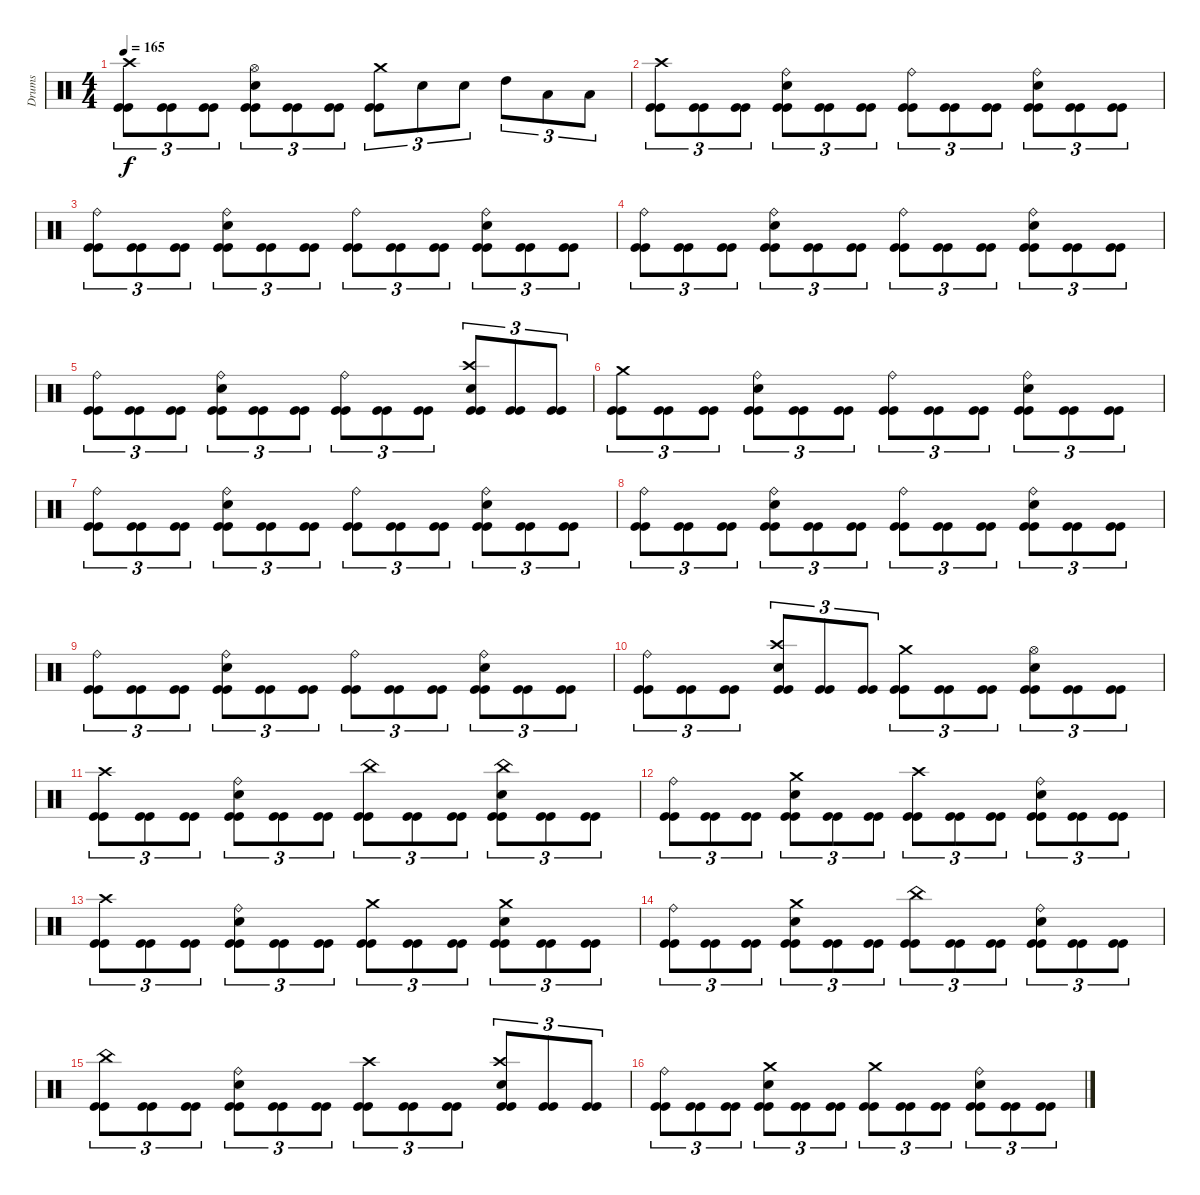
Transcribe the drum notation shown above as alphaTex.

\track ("Drums" "Drums") {instrument percussion}
\staff {score}
\articulation defaults
\ts (4 4)
\tempo 165
\clef neutral
\ks c
("Kick (hit)" "Kick (hit)" "Crash high (hit)").8{tu (3 2) dy f} ("Kick (hit)" "Kick (hit)").8{tu (3 2)} ("Kick (hit)" "Kick (hit)").8{tu (3 2)} ("Kick (hit)" "Kick (hit)" "Snare (hit) 2" "Hi-Hat (open)").8{tu (3 2)} ("Kick (hit)" "Kick (hit)").8{tu (3 2)} ("Kick (hit)" "Kick (hit)").8{tu (3 2)} ("Kick (hit)" "Kick (hit)" "Crash medium (hit)").8{tu (3 2)} "Snare (hit) 2".8{tu (3 2)} "Snare (hit) 2".8{tu (3 2)} "High Tom (hit)".8{tu (3 2)} "Low Tom (hit)".8{tu (3 2)} "Low Floor Tom (hit)".8{tu (3 2)} |
("Kick (hit)" "Kick (hit)" "Crash high (hit)").8{tu (3 2)} ("Kick (hit)" "Kick (hit)").8{tu (3 2)} ("Kick (hit)" "Kick (hit)").8{tu (3 2)} ("Kick (hit)" "Kick (hit)" "Snare (hit) 2" "Ride (bell)").8{tu (3 2)} ("Kick (hit)" "Kick (hit)").8{tu (3 2)} ("Kick (hit)" "Kick (hit)").8{tu (3 2)} ("Kick (hit)" "Kick (hit)" "Ride (bell)").8{tu (3 2)} ("Kick (hit)" "Kick (hit)").8{tu (3 2)} ("Kick (hit)" "Kick (hit)").8{tu (3 2)} ("Kick (hit)" "Kick (hit)" "Snare (hit) 2" "Ride (bell)").8{tu (3 2)} ("Kick (hit)" "Kick (hit)").8{tu (3 2)} ("Kick (hit)" "Kick (hit)").8{tu (3 2)} |
("Kick (hit)" "Kick (hit)" "Ride (bell)").8{tu (3 2)} ("Kick (hit)" "Kick (hit)").8{tu (3 2)} ("Kick (hit)" "Kick (hit)").8{tu (3 2)} ("Kick (hit)" "Kick (hit)" "Snare (hit) 2" "Ride (bell)").8{tu (3 2)} ("Kick (hit)" "Kick (hit)").8{tu (3 2)} ("Kick (hit)" "Kick (hit)").8{tu (3 2)} ("Kick (hit)" "Kick (hit)" "Ride (bell)").8{tu (3 2)} ("Kick (hit)" "Kick (hit)").8{tu (3 2)} ("Kick (hit)" "Kick (hit)").8{tu (3 2)} ("Kick (hit)" "Kick (hit)" "Snare (hit) 2" "Ride (bell)").8{tu (3 2)} ("Kick (hit)" "Kick (hit)").8{tu (3 2)} ("Kick (hit)" "Kick (hit)").8{tu (3 2)} |
("Kick (hit)" "Kick (hit)" "Ride (bell)").8{tu (3 2)} ("Kick (hit)" "Kick (hit)").8{tu (3 2)} ("Kick (hit)" "Kick (hit)").8{tu (3 2)} ("Kick (hit)" "Kick (hit)" "Snare (hit) 2" "Ride (bell)").8{tu (3 2)} ("Kick (hit)" "Kick (hit)").8{tu (3 2)} ("Kick (hit)" "Kick (hit)").8{tu (3 2)} ("Kick (hit)" "Kick (hit)" "Ride (bell)").8{tu (3 2)} ("Kick (hit)" "Kick (hit)").8{tu (3 2)} ("Kick (hit)" "Kick (hit)").8{tu (3 2)} ("Kick (hit)" "Kick (hit)" "Snare (hit) 2" "Ride (bell)").8{tu (3 2)} ("Kick (hit)" "Kick (hit)").8{tu (3 2)} ("Kick (hit)" "Kick (hit)").8{tu (3 2)} |
("Kick (hit)" "Kick (hit)" "Ride (bell)").8{tu (3 2)} ("Kick (hit)" "Kick (hit)").8{tu (3 2)} ("Kick (hit)" "Kick (hit)").8{tu (3 2)} ("Kick (hit)" "Kick (hit)" "Snare (hit) 2" "Ride (bell)").8{tu (3 2)} ("Kick (hit)" "Kick (hit)").8{tu (3 2)} ("Kick (hit)" "Kick (hit)").8{tu (3 2)} ("Kick (hit)" "Kick (hit)" "Ride (bell)").8{tu (3 2)} ("Kick (hit)" "Kick (hit)").8{tu (3 2)} ("Kick (hit)" "Kick (hit)").8{tu (3 2)} ("Kick (hit)" "Kick (hit)" "Snare (hit) 2" "Crash high (hit)").8{tu (3 2)} ("Kick (hit)" "Kick (hit)").8{tu (3 2)} ("Kick (hit)" "Kick (hit)").8{tu (3 2)} |
("Kick (hit)" "Kick (hit)" "Crash medium (hit)").8{tu (3 2)} ("Kick (hit)" "Kick (hit)").8{tu (3 2)} ("Kick (hit)" "Kick (hit)").8{tu (3 2)} ("Kick (hit)" "Kick (hit)" "Snare (hit) 2" "Ride (bell)").8{tu (3 2)} ("Kick (hit)" "Kick (hit)").8{tu (3 2)} ("Kick (hit)" "Kick (hit)").8{tu (3 2)} ("Kick (hit)" "Kick (hit)" "Ride (bell)").8{tu (3 2)} ("Kick (hit)" "Kick (hit)").8{tu (3 2)} ("Kick (hit)" "Kick (hit)").8{tu (3 2)} ("Kick (hit)" "Kick (hit)" "Snare (hit) 2" "Ride (bell)").8{tu (3 2)} ("Kick (hit)" "Kick (hit)").8{tu (3 2)} ("Kick (hit)" "Kick (hit)").8{tu (3 2)} |
("Kick (hit)" "Kick (hit)" "Ride (bell)").8{tu (3 2)} ("Kick (hit)" "Kick (hit)").8{tu (3 2)} ("Kick (hit)" "Kick (hit)").8{tu (3 2)} ("Kick (hit)" "Kick (hit)" "Snare (hit) 2" "Ride (bell)").8{tu (3 2)} ("Kick (hit)" "Kick (hit)").8{tu (3 2)} ("Kick (hit)" "Kick (hit)").8{tu (3 2)} ("Kick (hit)" "Kick (hit)" "Ride (bell)").8{tu (3 2)} ("Kick (hit)" "Kick (hit)").8{tu (3 2)} ("Kick (hit)" "Kick (hit)").8{tu (3 2)} ("Kick (hit)" "Kick (hit)" "Snare (hit) 2" "Ride (bell)").8{tu (3 2)} ("Kick (hit)" "Kick (hit)").8{tu (3 2)} ("Kick (hit)" "Kick (hit)").8{tu (3 2)} |
("Kick (hit)" "Kick (hit)" "Ride (bell)").8{tu (3 2)} ("Kick (hit)" "Kick (hit)").8{tu (3 2)} ("Kick (hit)" "Kick (hit)").8{tu (3 2)} ("Kick (hit)" "Kick (hit)" "Snare (hit) 2" "Ride (bell)").8{tu (3 2)} ("Kick (hit)" "Kick (hit)").8{tu (3 2)} ("Kick (hit)" "Kick (hit)").8{tu (3 2)} ("Kick (hit)" "Kick (hit)" "Ride (bell)").8{tu (3 2)} ("Kick (hit)" "Kick (hit)").8{tu (3 2)} ("Kick (hit)" "Kick (hit)").8{tu (3 2)} ("Kick (hit)" "Kick (hit)" "Snare (hit) 2" "Ride (bell)").8{tu (3 2)} ("Kick (hit)" "Kick (hit)").8{tu (3 2)} ("Kick (hit)" "Kick (hit)").8{tu (3 2)} |
("Kick (hit)" "Kick (hit)" "Ride (bell)").8{tu (3 2)} ("Kick (hit)" "Kick (hit)").8{tu (3 2)} ("Kick (hit)" "Kick (hit)").8{tu (3 2)} ("Kick (hit)" "Kick (hit)" "Snare (hit) 2" "Ride (bell)").8{tu (3 2)} ("Kick (hit)" "Kick (hit)").8{tu (3 2)} ("Kick (hit)" "Kick (hit)").8{tu (3 2)} ("Kick (hit)" "Kick (hit)" "Ride (bell)").8{tu (3 2)} ("Kick (hit)" "Kick (hit)").8{tu (3 2)} ("Kick (hit)" "Kick (hit)").8{tu (3 2)} ("Kick (hit)" "Kick (hit)" "Snare (hit) 2" "Ride (bell)").8{tu (3 2)} ("Kick (hit)" "Kick (hit)").8{tu (3 2)} ("Kick (hit)" "Kick (hit)").8{tu (3 2)} |
("Kick (hit)" "Kick (hit)" "Ride (bell)").8{tu (3 2)} ("Kick (hit)" "Kick (hit)").8{tu (3 2)} ("Kick (hit)" "Kick (hit)").8{tu (3 2)} ("Kick (hit)" "Kick (hit)" "Snare (hit) 2" "Crash high (hit)").8{tu (3 2)} ("Kick (hit)" "Kick (hit)").8{tu (3 2)} ("Kick (hit)" "Kick (hit)").8{tu (3 2)} ("Kick (hit)" "Kick (hit)" "Crash medium (hit)").8{tu (3 2)} ("Kick (hit)" "Kick (hit)").8{tu (3 2)} ("Kick (hit)" "Kick (hit)").8{tu (3 2)} ("Kick (hit)" "Kick (hit)" "Snare (hit) 2" "Hi-Hat (open)").8{tu (3 2)} ("Kick (hit)" "Kick (hit)").8{tu (3 2)} ("Kick (hit)" "Kick (hit)").8{tu (3 2)} |
("Kick (hit)" "Kick (hit)" "Crash high (hit)").8{tu (3 2)} ("Kick (hit)" "Kick (hit)").8{tu (3 2)} ("Kick (hit)" "Kick (hit)").8{tu (3 2)} ("Kick (hit)" "Kick (hit)" "Snare (hit) 2" "Ride (bell)").8{tu (3 2)} ("Kick (hit)" "Kick (hit)").8{tu (3 2)} ("Kick (hit)" "Kick (hit)").8{tu (3 2)} ("Kick (hit)" "Kick (hit)" "China (hit)").8{tu (3 2)} ("Kick (hit)" "Kick (hit)").8{tu (3 2)} ("Kick (hit)" "Kick (hit)").8{tu (3 2)} ("Kick (hit)" "Kick (hit)" "Snare (hit) 2" "China (hit)").8{tu (3 2)} ("Kick (hit)" "Kick (hit)").8{tu (3 2)} ("Kick (hit)" "Kick (hit)").8{tu (3 2)} |
("Kick (hit)" "Kick (hit)" "Ride (bell)").8{tu (3 2)} ("Kick (hit)" "Kick (hit)").8{tu (3 2)} ("Kick (hit)" "Kick (hit)").8{tu (3 2)} ("Kick (hit)" "Kick (hit)" "Snare (hit) 2" "Crash medium (hit)").8{tu (3 2)} ("Kick (hit)" "Kick (hit)").8{tu (3 2)} ("Kick (hit)" "Kick (hit)").8{tu (3 2)} ("Kick (hit)" "Kick (hit)" "Crash high (hit)").8{tu (3 2)} ("Kick (hit)" "Kick (hit)").8{tu (3 2)} ("Kick (hit)" "Kick (hit)").8{tu (3 2)} ("Kick (hit)" "Kick (hit)" "Snare (hit) 2" "Ride (bell)").8{tu (3 2)} ("Kick (hit)" "Kick (hit)").8{tu (3 2)} ("Kick (hit)" "Kick (hit)").8{tu (3 2)} |
("Kick (hit)" "Kick (hit)" "Crash high (hit)").8{tu (3 2)} ("Kick (hit)" "Kick (hit)").8{tu (3 2)} ("Kick (hit)" "Kick (hit)").8{tu (3 2)} ("Kick (hit)" "Kick (hit)" "Snare (hit) 2" "Ride (bell)").8{tu (3 2)} ("Kick (hit)" "Kick (hit)").8{tu (3 2)} ("Kick (hit)" "Kick (hit)").8{tu (3 2)} ("Kick (hit)" "Kick (hit)" "Crash medium (hit)").8{tu (3 2)} ("Kick (hit)" "Kick (hit)").8{tu (3 2)} ("Kick (hit)" "Kick (hit)").8{tu (3 2)} ("Kick (hit)" "Kick (hit)" "Snare (hit) 2" "Crash medium (hit)").8{tu (3 2)} ("Kick (hit)" "Kick (hit)").8{tu (3 2)} ("Kick (hit)" "Kick (hit)").8{tu (3 2)} |
("Kick (hit)" "Kick (hit)" "Ride (bell)").8{tu (3 2)} ("Kick (hit)" "Kick (hit)").8{tu (3 2)} ("Kick (hit)" "Kick (hit)").8{tu (3 2)} ("Kick (hit)" "Kick (hit)" "Snare (hit) 2" "Crash medium (hit)").8{tu (3 2)} ("Kick (hit)" "Kick (hit)").8{tu (3 2)} ("Kick (hit)" "Kick (hit)").8{tu (3 2)} ("Kick (hit)" "Kick (hit)" "China (hit)").8{tu (3 2)} ("Kick (hit)" "Kick (hit)").8{tu (3 2)} ("Kick (hit)" "Kick (hit)").8{tu (3 2)} ("Kick (hit)" "Kick (hit)" "Snare (hit) 2" "Ride (bell)").8{tu (3 2)} ("Kick (hit)" "Kick (hit)").8{tu (3 2)} ("Kick (hit)" "Kick (hit)").8{tu (3 2)} |
("Kick (hit)" "Kick (hit)" "China (hit)").8{tu (3 2)} ("Kick (hit)" "Kick (hit)").8{tu (3 2)} ("Kick (hit)" "Kick (hit)").8{tu (3 2)} ("Kick (hit)" "Kick (hit)" "Snare (hit) 2" "Ride (bell)").8{tu (3 2)} ("Kick (hit)" "Kick (hit)").8{tu (3 2)} ("Kick (hit)" "Kick (hit)").8{tu (3 2)} ("Kick (hit)" "Kick (hit)" "Crash high (hit)").8{tu (3 2)} ("Kick (hit)" "Kick (hit)").8{tu (3 2)} ("Kick (hit)" "Kick (hit)").8{tu (3 2)} ("Kick (hit)" "Kick (hit)" "Snare (hit) 2" "Crash high (hit)").8{tu (3 2)} ("Kick (hit)" "Kick (hit)").8{tu (3 2)} ("Kick (hit)" "Kick (hit)").8{tu (3 2)} |
("Kick (hit)" "Kick (hit)" "Ride (bell)").8{tu (3 2)} ("Kick (hit)" "Kick (hit)").8{tu (3 2)} ("Kick (hit)" "Kick (hit)").8{tu (3 2)} ("Kick (hit)" "Kick (hit)" "Snare (hit) 2" "Crash medium (hit)").8{tu (3 2)} ("Kick (hit)" "Kick (hit)").8{tu (3 2)} ("Kick (hit)" "Kick (hit)").8{tu (3 2)} ("Kick (hit)" "Kick (hit)" "Crash medium (hit)").8{tu (3 2)} ("Kick (hit)" "Kick (hit)").8{tu (3 2)} ("Kick (hit)" "Kick (hit)").8{tu (3 2)} ("Kick (hit)" "Kick (hit)" "Snare (hit) 2" "Ride (bell)").8{tu (3 2)} ("Kick (hit)" "Kick (hit)").8{tu (3 2)} ("Kick (hit)" "Kick (hit)").8{tu (3 2)}
